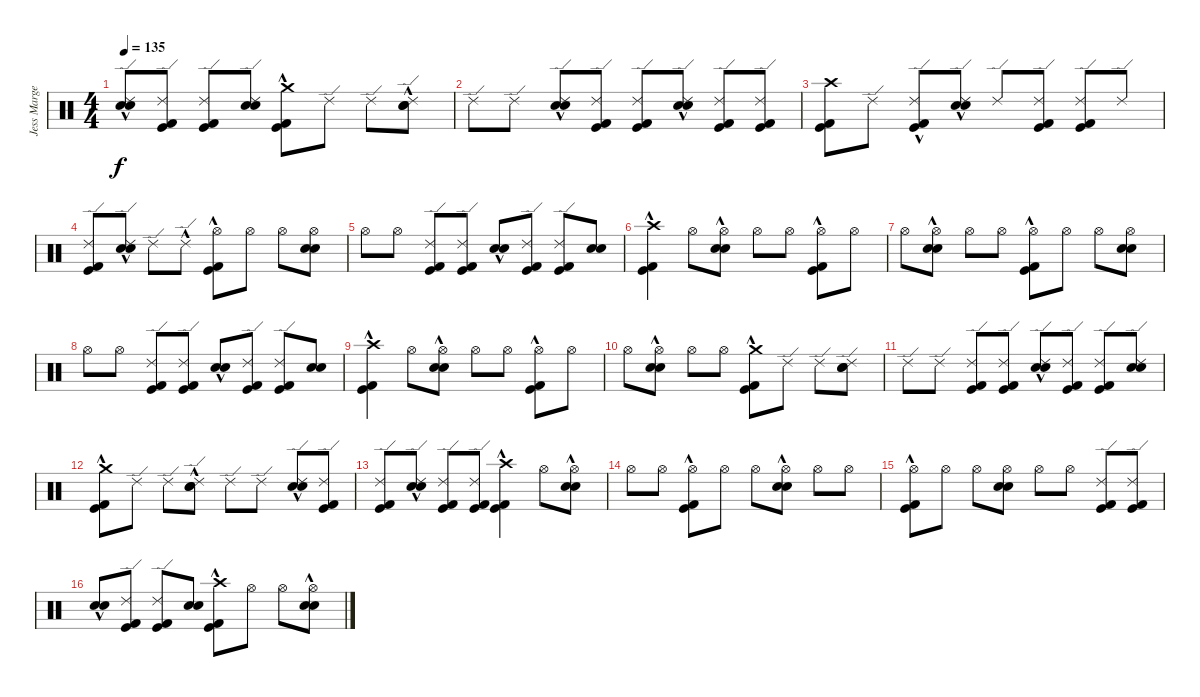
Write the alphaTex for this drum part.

\track ("Jess Margera" "Jess Marge") {instrument percussion}
\staff {score}
\articulation defaults
\ts (4 4)
\tempo 135
\clef neutral
\ks c
("Electric Snare (hit)"{hac} "Electric Snare (hit)"{hac} "Ride (edge) 2").8{dy f} ("Kick (hit)" "Kick (hit) 2" "Ride (edge) 2").8 ("Kick (hit)" "Kick (hit) 2" "Ride (edge) 2").8 ("Electric Snare (hit)" "Electric Snare (hit)" "Ride (edge) 2").8 ("Kick (hit)"{hac} "Kick (hit) 2"{hac} "Crash medium (hit)").8 "Ride (edge) 2".8 "Ride (edge) 2".8 ("Electric Snare (hit)"{hac} "Electric Snare (hit)"{hac} "Ride (edge) 2").8 |
"Ride (edge) 2".8 "Ride (edge) 2".8 ("Electric Snare (hit)"{hac} "Electric Snare (hit)"{hac} "Ride (edge) 2").8 ("Kick (hit)" "Kick (hit) 2" "Ride (edge) 2").8 ("Kick (hit)" "Kick (hit) 2" "Ride (edge) 2").8 ("Electric Snare (hit)"{hac} "Electric Snare (hit)"{hac} "Ride (edge) 2").8 ("Kick (hit)" "Kick (hit) 2" "Ride (edge) 2").8 ("Kick (hit)" "Kick (hit) 2" "Ride (edge) 2").8 |
("Kick (hit)" "Kick (hit) 2" "Crash high (hit)").8 "Ride (edge) 2".8 ("Kick (hit)"{hac} "Kick (hit) 2"{hac} "Ride (edge) 2").8 ("Electric Snare (hit)"{hac} "Electric Snare (hit)"{hac} "Ride (edge) 2").8 "Ride (edge) 2".8 ("Kick (hit)" "Kick (hit) 2" "Ride (edge) 2").8 ("Kick (hit)" "Kick (hit) 2" "Ride (edge) 2").8 "Ride (edge) 2".8 |
("Kick (hit)" "Kick (hit) 2" "Ride (edge) 2").8 ("Electric Snare (hit)"{hac} "Electric Snare (hit)"{hac} "Ride (edge) 2").8 "Ride (edge) 2".8 "Ride (edge) 2"{hac}.8 ("Kick (hit)"{hac} "Kick (hit) 2"{hac} "Hi-Hat (open)").8 "Hi-Hat (open)".8 "Hi-Hat (open)".8 ("Electric Snare (hit)" "Electric Snare (hit)" "Hi-Hat (open)").8 |
"Hi-Hat (open)".8 "Hi-Hat (open)".8 ("Kick (hit)" "Kick (hit) 2" "Ride (edge) 2").8 ("Kick (hit)" "Kick (hit) 2" "Ride (edge) 2").8 ("Electric Snare (hit)"{hac} "Electric Snare (hit)"{hac}).8 ("Kick (hit)" "Kick (hit) 2" "Ride (edge) 2").8 ("Kick (hit)" "Kick (hit) 2" "Ride (edge) 2").8 ("Electric Snare (hit)" "Electric Snare (hit)").8 |
("Kick (hit)"{hac} "Kick (hit) 2"{hac} "Crash high (hit)").4 "Hi-Hat (open)".8 ("Electric Snare (hit)"{hac} "Electric Snare (hit)"{hac} "Hi-Hat (open)").8 "Hi-Hat (open)".8 "Hi-Hat (open)".8 ("Kick (hit)"{hac} "Kick (hit) 2"{hac} "Hi-Hat (open)").8 "Hi-Hat (open)".8 |
"Hi-Hat (open)".8 ("Electric Snare (hit)"{hac} "Electric Snare (hit)"{hac} "Hi-Hat (open)").8 "Hi-Hat (open)".8 "Hi-Hat (open)".8 ("Kick (hit)"{hac} "Kick (hit) 2"{hac} "Hi-Hat (open)").8 "Hi-Hat (open)".8 "Hi-Hat (open)".8 ("Electric Snare (hit)" "Electric Snare (hit)" "Hi-Hat (open)").8 |
"Hi-Hat (open)".8 "Hi-Hat (open)".8 ("Kick (hit)" "Kick (hit) 2" "Ride (edge) 2").8 ("Kick (hit)" "Kick (hit) 2" "Ride (edge) 2").8 ("Electric Snare (hit)"{hac} "Electric Snare (hit)"{hac}).8 ("Kick (hit)" "Kick (hit) 2" "Ride (edge) 2").8 ("Kick (hit)" "Kick (hit) 2" "Ride (edge) 2").8 ("Electric Snare (hit)" "Electric Snare (hit)").8 |
("Kick (hit)"{hac} "Kick (hit) 2"{hac} "Crash high (hit)").4 "Hi-Hat (open)".8 ("Electric Snare (hit)"{hac} "Electric Snare (hit)"{hac} "Hi-Hat (open)").8 "Hi-Hat (open)".8 "Hi-Hat (open)".8 ("Kick (hit)"{hac} "Kick (hit) 2"{hac} "Hi-Hat (open)").8 "Hi-Hat (open)".8 |
"Hi-Hat (open)".8 ("Electric Snare (hit)"{hac} "Electric Snare (hit)"{hac} "Hi-Hat (open)").8 "Hi-Hat (open)".8 "Hi-Hat (open)".8 ("Kick (hit)"{hac} "Kick (hit) 2"{hac} "Crash medium (hit)").8 "Ride (edge) 2".8 "Ride (edge) 2".8 ("Electric Snare (hit)" "Electric Snare (hit)" "Ride (edge) 2").8 |
"Ride (edge) 2".8 "Ride (edge) 2".8 ("Kick (hit)" "Kick (hit) 2" "Ride (edge) 2").8 ("Kick (hit)" "Kick (hit) 2" "Ride (edge) 2").8 ("Electric Snare (hit)"{hac} "Electric Snare (hit)"{hac} "Ride (edge) 2").8 ("Kick (hit)" "Kick (hit) 2" "Ride (edge) 2").8 ("Kick (hit)" "Kick (hit) 2" "Ride (edge) 2").8 ("Electric Snare (hit)" "Electric Snare (hit)" "Ride (edge) 2").8 |
("Kick (hit)"{hac} "Kick (hit) 2"{hac} "Crash medium (hit)").8 "Ride (edge) 2".8 "Ride (edge) 2".8 ("Electric Snare (hit)"{hac} "Electric Snare (hit)"{hac} "Ride (edge) 2").8 "Ride (edge) 2".8 "Ride (edge) 2".8 ("Electric Snare (hit)"{hac} "Electric Snare (hit)"{hac} "Ride (edge) 2").8 ("Kick (hit)" "Kick (hit) 2" "Ride (edge) 2").8 |
("Kick (hit)" "Kick (hit) 2" "Ride (edge) 2").8 ("Electric Snare (hit)"{hac} "Electric Snare (hit)"{hac} "Ride (edge) 2").8 ("Kick (hit)" "Kick (hit) 2" "Ride (edge) 2").8 ("Kick (hit)" "Kick (hit) 2" "Ride (edge) 2").8 ("Kick (hit)"{hac} "Kick (hit) 2"{hac} "Crash high (hit)").4 "Hi-Hat (open)".8 ("Electric Snare (hit)"{hac} "Electric Snare (hit)"{hac} "Hi-Hat (open)").8 |
"Hi-Hat (open)".8 "Hi-Hat (open)".8 ("Kick (hit)"{hac} "Kick (hit) 2"{hac} "Hi-Hat (open)").8 "Hi-Hat (open)".8 "Hi-Hat (open)".8 ("Electric Snare (hit)"{hac} "Electric Snare (hit)"{hac} "Hi-Hat (open)").8 "Hi-Hat (open)".8 "Hi-Hat (open)".8 |
("Kick (hit)"{hac} "Kick (hit) 2"{hac} "Hi-Hat (open)").8 "Hi-Hat (open)".8 "Hi-Hat (open)".8 ("Electric Snare (hit)" "Electric Snare (hit)" "Hi-Hat (open)").8 "Hi-Hat (open)".8 "Hi-Hat (open)".8 ("Kick (hit)" "Kick (hit) 2" "Ride (edge) 2").8 ("Kick (hit)" "Kick (hit) 2" "Ride (edge) 2").8 |
("Electric Snare (hit)"{hac} "Electric Snare (hit)"{hac}).8 ("Kick (hit)" "Kick (hit) 2" "Ride (edge) 2").8 ("Kick (hit)" "Kick (hit) 2" "Ride (edge) 2").8 ("Electric Snare (hit)" "Electric Snare (hit)").8 ("Kick (hit)"{hac} "Kick (hit) 2"{hac} "Crash high (hit)").8 "Hi-Hat (open)".8 "Hi-Hat (open)".8 ("Electric Snare (hit)"{hac} "Electric Snare (hit)"{hac} "Hi-Hat (open)").8
